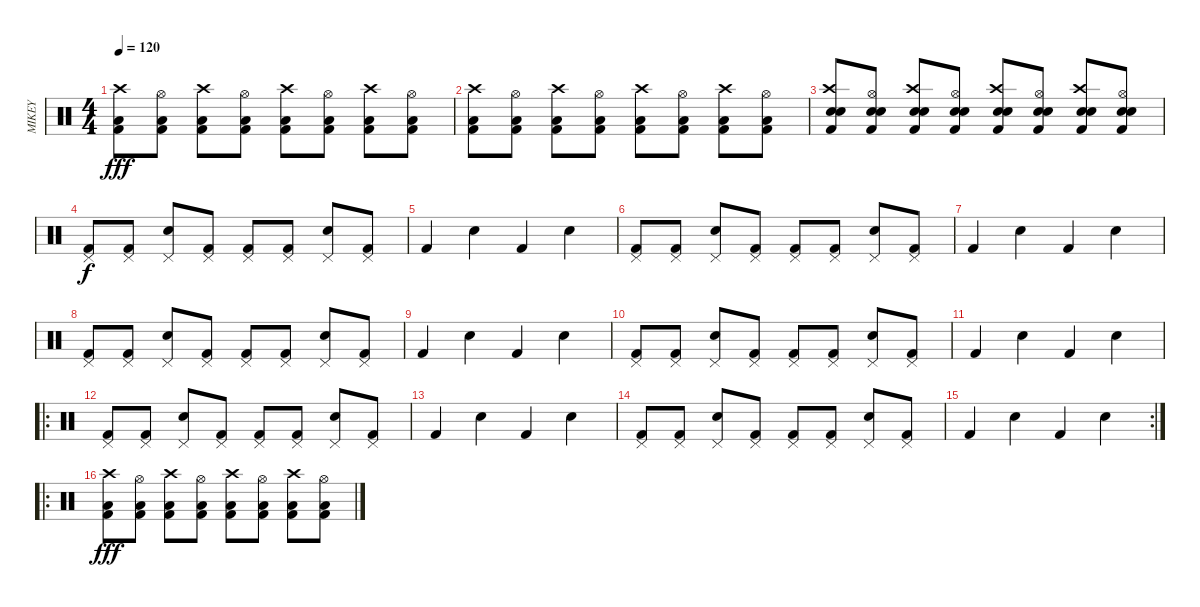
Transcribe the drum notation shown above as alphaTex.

\track ("MIKEY" "MIKEY") {instrument percussion}
\staff {score}
\articulation defaults
\ts (4 4)
\tempo 120
\clef neutral
\ks c
("Low Floor Tom (hit)" "Kick (hit) 2" "Crash high (hit)").8{dy fff} ("Low Floor Tom (hit)" "Hi-Hat (open)" "Kick (hit) 2").8 ("Low Floor Tom (hit)" "Kick (hit) 2" "Crash high (hit)").8 ("Low Floor Tom (hit)" "Hi-Hat (open)" "Kick (hit) 2").8 ("Low Floor Tom (hit)" "Kick (hit) 2" "Crash high (hit)").8 ("Low Floor Tom (hit)" "Hi-Hat (open)" "Kick (hit) 2").8 ("Low Floor Tom (hit)" "Kick (hit) 2" "Crash high (hit)").8 ("Low Floor Tom (hit)" "Hi-Hat (open)" "Kick (hit) 2").8 |
("Low Floor Tom (hit)" "Kick (hit) 2" "Crash high (hit)").8 ("Low Floor Tom (hit)" "Hi-Hat (open)" "Kick (hit) 2").8 ("Low Floor Tom (hit)" "Kick (hit) 2" "Crash high (hit)").8 ("Low Floor Tom (hit)" "Hi-Hat (open)" "Kick (hit) 2").8 ("Low Floor Tom (hit)" "Kick (hit) 2" "Crash high (hit)").8 ("Low Floor Tom (hit)" "Hi-Hat (open)" "Kick (hit) 2").8 ("Low Floor Tom (hit)" "Kick (hit) 2" "Crash high (hit)").8 ("Low Floor Tom (hit)" "Hi-Hat (open)" "Kick (hit) 2").8 |
("Electric Snare (hit)" "Kick (hit) 2" "Electric Snare (hit)" "Crash high (hit)").8 ("Electric Snare (hit)" "Kick (hit) 2" "Hi-Hat (open)" "Electric Snare (hit)").8 ("Electric Snare (hit)" "Kick (hit) 2" "Electric Snare (hit)" "Crash high (hit)").8 ("Electric Snare (hit)" "Kick (hit) 2" "Hi-Hat (open)" "Electric Snare (hit)").8 ("Electric Snare (hit)" "Kick (hit) 2" "Electric Snare (hit)" "Crash high (hit)").8 ("Electric Snare (hit)" "Kick (hit) 2" "Hi-Hat (open)" "Electric Snare (hit)").8 ("Electric Snare (hit)" "Kick (hit) 2" "Electric Snare (hit)" "Crash high (hit)").8 ("Electric Snare (hit)" "Kick (hit) 2" "Hi-Hat (open)" "Electric Snare (hit)").8 |
("Pedal Hi-Hat (hit)" "Kick (hit) 2").8{dy f} ("Pedal Hi-Hat (hit)" "Kick (hit) 2").8 ("Pedal Hi-Hat (hit)" "Electric Snare (hit)").8 ("Pedal Hi-Hat (hit)" "Kick (hit) 2").8 ("Pedal Hi-Hat (hit)" "Kick (hit) 2").8 ("Pedal Hi-Hat (hit)" "Kick (hit) 2").8 ("Pedal Hi-Hat (hit)" "Electric Snare (hit)").8 ("Pedal Hi-Hat (hit)" "Kick (hit) 2").8 |
"Kick (hit) 2".4 "Electric Snare (hit)".4 "Kick (hit) 2".4 "Electric Snare (hit)".4 |
("Pedal Hi-Hat (hit)" "Kick (hit) 2").8 ("Pedal Hi-Hat (hit)" "Kick (hit) 2").8 ("Pedal Hi-Hat (hit)" "Electric Snare (hit)").8 ("Pedal Hi-Hat (hit)" "Kick (hit) 2").8 ("Pedal Hi-Hat (hit)" "Kick (hit) 2").8 ("Pedal Hi-Hat (hit)" "Kick (hit) 2").8 ("Pedal Hi-Hat (hit)" "Electric Snare (hit)").8 ("Pedal Hi-Hat (hit)" "Kick (hit) 2").8 |
"Kick (hit) 2".4 "Electric Snare (hit)".4 "Kick (hit) 2".4 "Electric Snare (hit)".4 |
("Pedal Hi-Hat (hit)" "Kick (hit) 2").8 ("Pedal Hi-Hat (hit)" "Kick (hit) 2").8 ("Pedal Hi-Hat (hit)" "Electric Snare (hit)").8 ("Pedal Hi-Hat (hit)" "Kick (hit) 2").8 ("Pedal Hi-Hat (hit)" "Kick (hit) 2").8 ("Pedal Hi-Hat (hit)" "Kick (hit) 2").8 ("Pedal Hi-Hat (hit)" "Electric Snare (hit)").8 ("Pedal Hi-Hat (hit)" "Kick (hit) 2").8 |
"Kick (hit) 2".4 "Electric Snare (hit)".4 "Kick (hit) 2".4 "Electric Snare (hit)".4 |
("Pedal Hi-Hat (hit)" "Kick (hit) 2").8 ("Pedal Hi-Hat (hit)" "Kick (hit) 2").8 ("Pedal Hi-Hat (hit)" "Electric Snare (hit)").8 ("Pedal Hi-Hat (hit)" "Kick (hit) 2").8 ("Pedal Hi-Hat (hit)" "Kick (hit) 2").8 ("Pedal Hi-Hat (hit)" "Kick (hit) 2").8 ("Pedal Hi-Hat (hit)" "Electric Snare (hit)").8 ("Pedal Hi-Hat (hit)" "Kick (hit) 2").8 |
"Kick (hit) 2".4 "Electric Snare (hit)".4 "Kick (hit) 2".4 "Electric Snare (hit)".4 |
\ro
("Pedal Hi-Hat (hit)" "Kick (hit) 2").8 ("Pedal Hi-Hat (hit)" "Kick (hit) 2").8 ("Pedal Hi-Hat (hit)" "Electric Snare (hit)").8 ("Pedal Hi-Hat (hit)" "Kick (hit) 2").8 ("Pedal Hi-Hat (hit)" "Kick (hit) 2").8 ("Pedal Hi-Hat (hit)" "Kick (hit) 2").8 ("Pedal Hi-Hat (hit)" "Electric Snare (hit)").8 ("Pedal Hi-Hat (hit)" "Kick (hit) 2").8 |
"Kick (hit) 2".4 "Electric Snare (hit)".4 "Kick (hit) 2".4 "Electric Snare (hit)".4 |
("Pedal Hi-Hat (hit)" "Kick (hit) 2").8 ("Pedal Hi-Hat (hit)" "Kick (hit) 2").8 ("Pedal Hi-Hat (hit)" "Electric Snare (hit)").8 ("Pedal Hi-Hat (hit)" "Kick (hit) 2").8 ("Pedal Hi-Hat (hit)" "Kick (hit) 2").8 ("Pedal Hi-Hat (hit)" "Kick (hit) 2").8 ("Pedal Hi-Hat (hit)" "Electric Snare (hit)").8 ("Pedal Hi-Hat (hit)" "Kick (hit) 2").8 |
\rc 2 "Kick (hit) 2".4 "Electric Snare (hit)".4 "Kick (hit) 2".4 "Electric Snare (hit)".4
|
\ro
("Low Floor Tom (hit)" "Kick (hit) 2" "Crash high (hit)").8{dy fff} ("Low Floor Tom (hit)" "Hi-Hat (open)" "Kick (hit) 2").8 ("Low Floor Tom (hit)" "Kick (hit) 2" "Crash high (hit)").8 ("Low Floor Tom (hit)" "Hi-Hat (open)" "Kick (hit) 2").8 ("Low Floor Tom (hit)" "Kick (hit) 2" "Crash high (hit)").8 ("Low Floor Tom (hit)" "Hi-Hat (open)" "Kick (hit) 2").8 ("Low Floor Tom (hit)" "Kick (hit) 2" "Crash high (hit)").8 ("Low Floor Tom (hit)" "Hi-Hat (open)" "Kick (hit) 2").8
